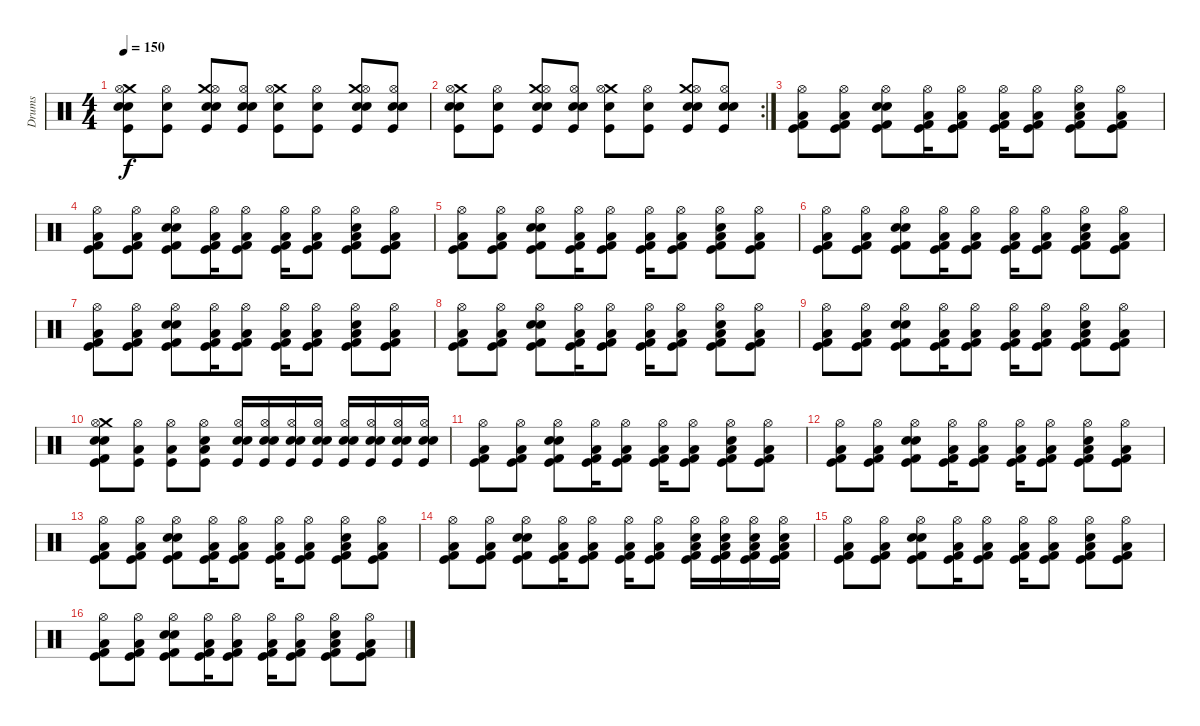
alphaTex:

\track ("Drums" "Drums") {instrument percussion}
\staff {score}
\articulation defaults
\ts (4 4)
\tempo 150
\clef neutral
\ks c
("Snare (hit) 2" "Crash medium (hit)" "Hi-Hat (open)" "Electric Snare (hit)" "Kick (hit)").8{dy f volume 16} ("Hi-Hat (open)" "Electric Snare (hit)" "Kick (hit)").8 ("Crash medium (hit)" "Hi-Hat (open)" "Snare (hit) 2" "Electric Snare (hit)" "Kick (hit)").8 ("Hi-Hat (open)" "Snare (hit) 2" "Electric Snare (hit)" "Kick (hit)").8 ("Crash medium (hit)" "Hi-Hat (open)" "Electric Snare (hit)" "Kick (hit)").8 ("Hi-Hat (open)" "Electric Snare (hit)" "Kick (hit)").8 ("Crash medium (hit)" "Hi-Hat (open)" "Snare (hit) 2" "Electric Snare (hit)" "Kick (hit)").8 ("Hi-Hat (open)" "Snare (hit) 2" "Electric Snare (hit)" "Kick (hit)").8 |
\rc 2
("Snare (hit) 2" "Crash medium (hit)" "Hi-Hat (open)" "Electric Snare (hit)" "Kick (hit)").8 ("Hi-Hat (open)" "Electric Snare (hit)" "Kick (hit)").8 ("Crash medium (hit)" "Hi-Hat (open)" "Snare (hit) 2" "Electric Snare (hit)" "Kick (hit)").8 ("Hi-Hat (open)" "Snare (hit) 2" "Electric Snare (hit)" "Kick (hit)").8 ("Crash medium (hit)" "Hi-Hat (open)" "Electric Snare (hit)" "Kick (hit)").8 ("Hi-Hat (open)" "Electric Snare (hit)" "Kick (hit)").8 ("Crash medium (hit)" "Hi-Hat (open)" "Snare (hit) 2" "Electric Snare (hit)" "Kick (hit)").8 ("Hi-Hat (open)" "Snare (hit) 2" "Electric Snare (hit)" "Kick (hit)").8 |
("Hi-Hat (open)" "Kick (hit) 2" "Low Floor Tom (hit)" "Kick (hit)").8 ("Hi-Hat (open)" "Kick (hit) 2" "Low Floor Tom (hit)" "Kick (hit)").8 ("Hi-Hat (open)" "Snare (hit) 2" "Kick (hit) 2" "Electric Snare (hit)" "Kick (hit)").8 ("Hi-Hat (open)" "Low Floor Tom (hit)" "Kick (hit) 2" "Kick (hit)").16 ("Hi-Hat (open)" "Low Floor Tom (hit)" "Kick (hit) 2" "Kick (hit)").8 ("Hi-Hat (open)" "Low Floor Tom (hit)" "Kick (hit) 2" "Kick (hit)").16 ("Hi-Hat (open)" "Low Floor Tom (hit)" "Kick (hit) 2" "Kick (hit)").8 ("Hi-Hat (open)" "Snare (hit) 2" "Low Floor Tom (hit)" "Kick (hit) 2" "Kick (hit)").8 ("Hi-Hat (open)" "Low Floor Tom (hit)" "Kick (hit) 2" "Kick (hit)").8 |
("Hi-Hat (open)" "Kick (hit) 2" "Low Floor Tom (hit)" "Kick (hit)").8 ("Hi-Hat (open)" "Kick (hit) 2" "Low Floor Tom (hit)" "Kick (hit)").8 ("Hi-Hat (open)" "Snare (hit) 2" "Kick (hit) 2" "Electric Snare (hit)" "Kick (hit)").8 ("Hi-Hat (open)" "Low Floor Tom (hit)" "Kick (hit) 2" "Kick (hit)").16 ("Hi-Hat (open)" "Low Floor Tom (hit)" "Kick (hit) 2" "Kick (hit)").8 ("Hi-Hat (open)" "Low Floor Tom (hit)" "Kick (hit) 2" "Kick (hit)").16 ("Hi-Hat (open)" "Low Floor Tom (hit)" "Kick (hit) 2" "Kick (hit)").8 ("Hi-Hat (open)" "Snare (hit) 2" "Low Floor Tom (hit)" "Kick (hit) 2" "Kick (hit)").8 ("Hi-Hat (open)" "Low Floor Tom (hit)" "Kick (hit) 2" "Kick (hit)").8 |
("Hi-Hat (open)" "Kick (hit) 2" "Low Floor Tom (hit)" "Kick (hit)").8 ("Hi-Hat (open)" "Kick (hit) 2" "Low Floor Tom (hit)" "Kick (hit)").8 ("Hi-Hat (open)" "Snare (hit) 2" "Kick (hit) 2" "Electric Snare (hit)" "Kick (hit)").8 ("Hi-Hat (open)" "Low Floor Tom (hit)" "Kick (hit) 2" "Kick (hit)").16 ("Hi-Hat (open)" "Low Floor Tom (hit)" "Kick (hit) 2" "Kick (hit)").8 ("Hi-Hat (open)" "Low Floor Tom (hit)" "Kick (hit) 2" "Kick (hit)").16 ("Hi-Hat (open)" "Low Floor Tom (hit)" "Kick (hit) 2" "Kick (hit)").8 ("Hi-Hat (open)" "Snare (hit) 2" "Low Floor Tom (hit)" "Kick (hit) 2" "Kick (hit)").8 ("Hi-Hat (open)" "Low Floor Tom (hit)" "Kick (hit) 2" "Kick (hit)").8 |
("Hi-Hat (open)" "Kick (hit) 2" "Low Floor Tom (hit)" "Kick (hit)").8 ("Hi-Hat (open)" "Kick (hit) 2" "Low Floor Tom (hit)" "Kick (hit)").8 ("Hi-Hat (open)" "Snare (hit) 2" "Kick (hit) 2" "Electric Snare (hit)" "Kick (hit)").8 ("Hi-Hat (open)" "Low Floor Tom (hit)" "Kick (hit) 2" "Kick (hit)").16 ("Hi-Hat (open)" "Low Floor Tom (hit)" "Kick (hit) 2" "Kick (hit)").8 ("Hi-Hat (open)" "Low Floor Tom (hit)" "Kick (hit) 2" "Kick (hit)").16 ("Hi-Hat (open)" "Low Floor Tom (hit)" "Kick (hit) 2" "Kick (hit)").8 ("Hi-Hat (open)" "Snare (hit) 2" "Low Floor Tom (hit)" "Kick (hit) 2" "Kick (hit)").8 ("Hi-Hat (open)" "Low Floor Tom (hit)" "Kick (hit) 2" "Kick (hit)").8 |
("Hi-Hat (open)" "Kick (hit) 2" "Low Floor Tom (hit)" "Kick (hit)").8 ("Hi-Hat (open)" "Kick (hit) 2" "Low Floor Tom (hit)" "Kick (hit)").8 ("Hi-Hat (open)" "Snare (hit) 2" "Kick (hit) 2" "Electric Snare (hit)" "Kick (hit)").8 ("Hi-Hat (open)" "Low Floor Tom (hit)" "Kick (hit) 2" "Kick (hit)").16 ("Hi-Hat (open)" "Low Floor Tom (hit)" "Kick (hit) 2" "Kick (hit)").8 ("Hi-Hat (open)" "Low Floor Tom (hit)" "Kick (hit) 2" "Kick (hit)").16 ("Hi-Hat (open)" "Low Floor Tom (hit)" "Kick (hit) 2" "Kick (hit)").8 ("Hi-Hat (open)" "Snare (hit) 2" "Low Floor Tom (hit)" "Kick (hit) 2" "Kick (hit)").8 ("Hi-Hat (open)" "Low Floor Tom (hit)" "Kick (hit) 2" "Kick (hit)").8 |
("Hi-Hat (open)" "Kick (hit) 2" "Low Floor Tom (hit)" "Kick (hit)").8 ("Hi-Hat (open)" "Kick (hit) 2" "Low Floor Tom (hit)" "Kick (hit)").8 ("Hi-Hat (open)" "Snare (hit) 2" "Kick (hit) 2" "Electric Snare (hit)" "Kick (hit)").8 ("Hi-Hat (open)" "Low Floor Tom (hit)" "Kick (hit) 2" "Kick (hit)").16 ("Hi-Hat (open)" "Low Floor Tom (hit)" "Kick (hit) 2" "Kick (hit)").8 ("Hi-Hat (open)" "Low Floor Tom (hit)" "Kick (hit) 2" "Kick (hit)").16 ("Hi-Hat (open)" "Low Floor Tom (hit)" "Kick (hit) 2" "Kick (hit)").8 ("Hi-Hat (open)" "Snare (hit) 2" "Low Floor Tom (hit)" "Kick (hit) 2" "Kick (hit)").8 ("Hi-Hat (open)" "Low Floor Tom (hit)" "Kick (hit) 2" "Kick (hit)").8 |
("Hi-Hat (open)" "Kick (hit) 2" "Low Floor Tom (hit)" "Kick (hit)").8 ("Hi-Hat (open)" "Kick (hit) 2" "Low Floor Tom (hit)" "Kick (hit)").8 ("Hi-Hat (open)" "Snare (hit) 2" "Kick (hit) 2" "Electric Snare (hit)" "Kick (hit)").8 ("Hi-Hat (open)" "Low Floor Tom (hit)" "Kick (hit) 2" "Kick (hit)").16 ("Hi-Hat (open)" "Low Floor Tom (hit)" "Kick (hit) 2" "Kick (hit)").8 ("Hi-Hat (open)" "Low Floor Tom (hit)" "Kick (hit) 2" "Kick (hit)").16 ("Hi-Hat (open)" "Low Floor Tom (hit)" "Kick (hit) 2" "Kick (hit)").8 ("Hi-Hat (open)" "Snare (hit) 2" "Low Floor Tom (hit)" "Kick (hit) 2" "Kick (hit)").8 ("Hi-Hat (open)" "Low Floor Tom (hit)" "Kick (hit) 2" "Kick (hit)").8 |
("Crash medium (hit)" "Snare (hit) 2" "Electric Snare (hit)" "Hi-Hat (open)" "Kick (hit) 2" "Kick (hit)").8 ("Low Floor Tom (hit)" "Hi-Hat (open)" "Kick (hit)").8 ("Low Floor Tom (hit)" "Hi-Hat (open)" "Kick (hit)").8 ("Electric Snare (hit)" "Low Floor Tom (hit)" "Hi-Hat (open)" "Kick (hit)").8 ("Electric Snare (hit)" "Snare (hit) 2" "Hi-Hat (open)" "Kick (hit)").16 ("Electric Snare (hit)" "Snare (hit) 2" "Hi-Hat (open)" "Kick (hit)").16 ("Electric Snare (hit)" "Snare (hit) 2" "Hi-Hat (open)" "Kick (hit)").16 ("Electric Snare (hit)" "Snare (hit) 2" "Hi-Hat (open)" "Kick (hit)").16 ("Electric Snare (hit)" "Snare (hit) 2" "Hi-Hat (open)" "Kick (hit)").16 ("Electric Snare (hit)" "Snare (hit) 2" "Hi-Hat (open)" "Kick (hit)").16 ("Electric Snare (hit)" "Snare (hit) 2" "Hi-Hat (open)" "Kick (hit)").16 ("Electric Snare (hit)" "Snare (hit) 2" "Hi-Hat (open)" "Kick (hit)").16 |
("Hi-Hat (open)" "Kick (hit) 2" "Low Floor Tom (hit)" "Kick (hit)").8 ("Hi-Hat (open)" "Kick (hit) 2" "Low Floor Tom (hit)" "Kick (hit)").8 ("Hi-Hat (open)" "Snare (hit) 2" "Kick (hit) 2" "Electric Snare (hit)" "Kick (hit)").8 ("Hi-Hat (open)" "Low Floor Tom (hit)" "Kick (hit) 2" "Kick (hit)").16 ("Hi-Hat (open)" "Low Floor Tom (hit)" "Kick (hit) 2" "Kick (hit)").8 ("Hi-Hat (open)" "Low Floor Tom (hit)" "Kick (hit) 2" "Kick (hit)").16 ("Hi-Hat (open)" "Low Floor Tom (hit)" "Kick (hit) 2" "Kick (hit)").8 ("Hi-Hat (open)" "Snare (hit) 2" "Low Floor Tom (hit)" "Kick (hit) 2" "Kick (hit)").8 ("Hi-Hat (open)" "Low Floor Tom (hit)" "Kick (hit) 2" "Kick (hit)").8 |
("Hi-Hat (open)" "Kick (hit) 2" "Low Floor Tom (hit)" "Kick (hit)").8 ("Hi-Hat (open)" "Kick (hit) 2" "Low Floor Tom (hit)" "Kick (hit)").8 ("Hi-Hat (open)" "Snare (hit) 2" "Kick (hit) 2" "Electric Snare (hit)" "Kick (hit)").8 ("Hi-Hat (open)" "Low Floor Tom (hit)" "Kick (hit) 2" "Kick (hit)").16 ("Hi-Hat (open)" "Low Floor Tom (hit)" "Kick (hit) 2" "Kick (hit)").8 ("Hi-Hat (open)" "Low Floor Tom (hit)" "Kick (hit) 2" "Kick (hit)").16 ("Hi-Hat (open)" "Low Floor Tom (hit)" "Kick (hit) 2" "Kick (hit)").8 ("Hi-Hat (open)" "Snare (hit) 2" "Low Floor Tom (hit)" "Kick (hit) 2" "Kick (hit)").8 ("Hi-Hat (open)" "Low Floor Tom (hit)" "Kick (hit) 2" "Kick (hit)").8 |
("Hi-Hat (open)" "Kick (hit) 2" "Low Floor Tom (hit)" "Kick (hit)").8 ("Hi-Hat (open)" "Kick (hit) 2" "Low Floor Tom (hit)" "Kick (hit)").8 ("Hi-Hat (open)" "Snare (hit) 2" "Kick (hit) 2" "Electric Snare (hit)" "Kick (hit)").8 ("Hi-Hat (open)" "Low Floor Tom (hit)" "Kick (hit) 2" "Kick (hit)").16 ("Hi-Hat (open)" "Low Floor Tom (hit)" "Kick (hit) 2" "Kick (hit)").8 ("Hi-Hat (open)" "Low Floor Tom (hit)" "Kick (hit) 2" "Kick (hit)").16 ("Hi-Hat (open)" "Low Floor Tom (hit)" "Kick (hit) 2" "Kick (hit)").8 ("Hi-Hat (open)" "Snare (hit) 2" "Low Floor Tom (hit)" "Kick (hit) 2" "Kick (hit)").8 ("Hi-Hat (open)" "Low Floor Tom (hit)" "Kick (hit) 2" "Kick (hit)").8 |
("Hi-Hat (open)" "Kick (hit) 2" "Low Floor Tom (hit)" "Kick (hit)").8 ("Hi-Hat (open)" "Kick (hit) 2" "Low Floor Tom (hit)" "Kick (hit)").8 ("Hi-Hat (open)" "Snare (hit) 2" "Kick (hit) 2" "Electric Snare (hit)" "Kick (hit)").8 ("Hi-Hat (open)" "Low Floor Tom (hit)" "Kick (hit) 2" "Kick (hit)").16 ("Hi-Hat (open)" "Low Floor Tom (hit)" "Kick (hit) 2" "Kick (hit)").8 ("Hi-Hat (open)" "Low Floor Tom (hit)" "Kick (hit) 2" "Kick (hit)").16 ("Hi-Hat (open)" "Low Floor Tom (hit)" "Kick (hit) 2" "Kick (hit)").8 ("Hi-Hat (open)" "Snare (hit) 2" "Low Floor Tom (hit)" "Kick (hit) 2" "Kick (hit)").16 ("Hi-Hat (open)" "Snare (hit) 2" "Low Floor Tom (hit)" "Kick (hit) 2" "Kick (hit)").16 ("Hi-Hat (open)" "Snare (hit) 2" "Low Floor Tom (hit)" "Kick (hit) 2" "Kick (hit)").16 ("Hi-Hat (open)" "Snare (hit) 2" "Low Floor Tom (hit)" "Kick (hit) 2" "Kick (hit)").16 |
("Hi-Hat (open)" "Kick (hit) 2" "Low Floor Tom (hit)" "Kick (hit)").8 ("Hi-Hat (open)" "Kick (hit) 2" "Low Floor Tom (hit)" "Kick (hit)").8 ("Hi-Hat (open)" "Snare (hit) 2" "Kick (hit) 2" "Electric Snare (hit)" "Kick (hit)").8 ("Hi-Hat (open)" "Low Floor Tom (hit)" "Kick (hit) 2" "Kick (hit)").16 ("Hi-Hat (open)" "Low Floor Tom (hit)" "Kick (hit) 2" "Kick (hit)").8 ("Hi-Hat (open)" "Low Floor Tom (hit)" "Kick (hit) 2" "Kick (hit)").16 ("Hi-Hat (open)" "Low Floor Tom (hit)" "Kick (hit) 2" "Kick (hit)").8 ("Hi-Hat (open)" "Snare (hit) 2" "Low Floor Tom (hit)" "Kick (hit) 2" "Kick (hit)").8 ("Hi-Hat (open)" "Low Floor Tom (hit)" "Kick (hit) 2" "Kick (hit)").8 |
("Hi-Hat (open)" "Kick (hit) 2" "Low Floor Tom (hit)" "Kick (hit)").8 ("Hi-Hat (open)" "Kick (hit) 2" "Low Floor Tom (hit)" "Kick (hit)").8 ("Hi-Hat (open)" "Snare (hit) 2" "Kick (hit) 2" "Electric Snare (hit)" "Kick (hit)").8 ("Hi-Hat (open)" "Low Floor Tom (hit)" "Kick (hit) 2" "Kick (hit)").16 ("Hi-Hat (open)" "Low Floor Tom (hit)" "Kick (hit) 2" "Kick (hit)").8 ("Hi-Hat (open)" "Low Floor Tom (hit)" "Kick (hit) 2" "Kick (hit)").16 ("Hi-Hat (open)" "Low Floor Tom (hit)" "Kick (hit) 2" "Kick (hit)").8 ("Hi-Hat (open)" "Snare (hit) 2" "Low Floor Tom (hit)" "Kick (hit) 2" "Kick (hit)").8 ("Hi-Hat (open)" "Low Floor Tom (hit)" "Kick (hit) 2" "Kick (hit)").8
